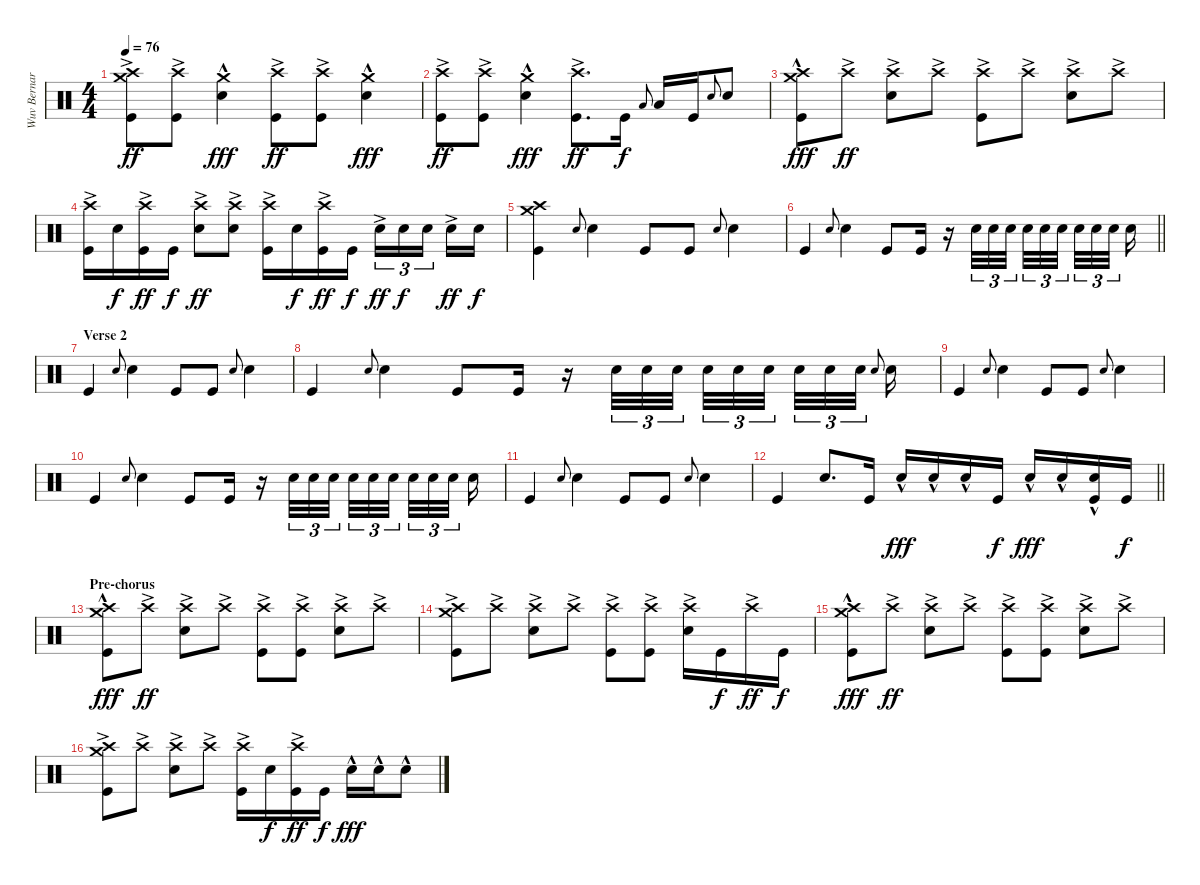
\track ("Wuv Bernardo" "Wuv Bernar") {instrument percussion}
\staff {score}
\articulation defaults
\ts (4 4)
\tempo 76
\clef neutral
\ks c
("Crash medium (hit)"{ac} "Crash high (hit)"{ac} "Kick (hit)").8{dy ff} ("Crash high (hit)"{ac} "Kick (hit)").8 ("Crash medium (hit)"{hac} "Snare (hit) 2").4{dy fff} ("Crash high (hit)"{ac} "Kick (hit)").8{dy ff} ("Crash high (hit)"{ac} "Kick (hit)").8 ("Crash medium (hit)"{hac} "Snare (hit) 2").4{dy fff} |
("Crash high (hit)"{ac} "Kick (hit)").8{dy ff} ("Crash high (hit)"{ac} "Kick (hit)").8 ("Crash medium (hit)"{hac} "Snare (hit) 2").4{dy fff} ("Crash high (hit)"{ac} "Kick (hit)").8{d dy ff} "Kick (hit)".16{dy f} "Low Tom (hit)".8{gr onbeat} "Low Tom (hit)".16 "Kick (hit)".16 "Snare (hit) 2".8{gr onbeat} "Snare (hit) 2".8 |
("Crash medium (hit)"{hac} "Crash high (hit)"{hac} "Kick (hit)").8{dy fff} "Crash high (hit)"{ac}.8{dy ff} ("Crash high (hit)"{ac} "Snare (hit) 2").8 "Crash high (hit)"{ac}.8 ("Crash high (hit)"{ac} "Kick (hit)").8 "Crash high (hit)"{ac}.8 ("Crash high (hit)"{ac} "Snare (hit) 2").8 "Crash high (hit)"{ac}.8 |
("Crash high (hit)"{ac} "Kick (hit)").16 "Snare (hit) 2".16{dy f} ("Crash high (hit)"{ac} "Kick (hit)").16{dy ff} "Kick (hit)".16{dy f} ("Crash high (hit)"{ac} "Snare (hit) 2").8{dy ff} ("Crash high (hit)"{ac} "Snare (hit) 2").8 ("Crash high (hit)"{ac} "Kick (hit)").16 "Snare (hit) 2".16{dy f} ("Crash high (hit)"{ac} "Kick (hit)").16{dy ff} "Kick (hit)".16{dy f} "Snare (hit) 2"{ac}.16{tu (3 2) dy ff} "Snare (hit) 2".16{tu (3 2) dy f} "Snare (hit) 2".16{tu (3 2) beam splitsecondary} "Snare (hit) 2"{ac}.16{dy ff} "Snare (hit) 2".16{dy f} |
("Crash medium (hit)" "Crash high (hit)" "Kick (hit)").4 "Snare (hit) 2".8{gr onbeat} "Snare (hit) 2".4 "Kick (hit)".8 "Kick (hit)".8 "Snare (hit) 2".8{gr onbeat} "Snare (hit) 2".4 |
\barLineRight lightlight "Kick (hit)".4 "Snare (hit) 2".8{gr onbeat} "Snare (hit) 2".4 "Kick (hit)".8 "Kick (hit)".16
r.16{volume 0} "Snare (hit) 2".32{tu (3 2) volume 13} "Snare (hit) 2".32{tu (3 2)} "Snare (hit) 2".32{tu (3 2) beam splitsecondary} "Snare (hit) 2".32{tu (3 2)} "Snare (hit) 2".32{tu (3 2)} "Snare (hit) 2".32{tu (3 2) beam splitsecondary} "Snare (hit) 2".32{tu (3 2)} "Snare (hit) 2".32{tu (3 2)} "Snare (hit) 2".32{tu (3 2) beam splitsecondary} "Snare (hit) 2".16 |
\section ("" "Verse 2")
"Kick (hit)".4 "Snare (hit) 2".8{gr onbeat} "Snare (hit) 2".4 "Kick (hit)".8 "Kick (hit)".8 "Snare (hit) 2".8{gr onbeat} "Snare (hit) 2".4 |
"Kick (hit)".4 "Snare (hit) 2".8{gr onbeat} "Snare (hit) 2".4 "Kick (hit)".8 "Kick (hit)".16 r.16{volume 0} "Snare (hit) 2".32{tu (3 2) volume 13} "Snare (hit) 2".32{tu (3 2)} "Snare (hit) 2".32{tu (3 2) beam splitsecondary} "Snare (hit) 2".32{tu (3 2)} "Snare (hit) 2".32{tu (3 2)} "Snare (hit) 2".32{tu (3 2) beam splitsecondary} "Snare (hit) 2".32{tu (3 2)} "Snare (hit) 2".32{tu (3 2)} "Snare (hit) 2".32{tu (3 2)} "Snare (hit) 2".8{gr onbeat beam splitsecondary} "Snare (hit) 2".16 |
"Kick (hit)".4 "Snare (hit) 2".8{gr onbeat} "Snare (hit) 2".4 "Kick (hit)".8 "Kick (hit)".8 "Snare (hit) 2".8{gr onbeat} "Snare (hit) 2".4 |
"Kick (hit)".4 "Snare (hit) 2".8{gr onbeat} "Snare (hit) 2".4 "Kick (hit)".8 "Kick (hit)".16 r.16{volume 0} "Snare (hit) 2".32{tu (3 2) volume 13} "Snare (hit) 2".32{tu (3 2)} "Snare (hit) 2".32{tu (3 2) beam splitsecondary} "Snare (hit) 2".32{tu (3 2)} "Snare (hit) 2".32{tu (3 2)} "Snare (hit) 2".32{tu (3 2) beam splitsecondary} "Snare (hit) 2".32{tu (3 2)} "Snare (hit) 2".32{tu (3 2)} "Snare (hit) 2".32{tu (3 2) beam splitsecondary} "Snare (hit) 2".16 |
"Kick (hit)".4 "Snare (hit) 2".8{gr onbeat} "Snare (hit) 2".4 "Kick (hit)".8 "Kick (hit)".8 "Snare (hit) 2".8{gr onbeat} "Snare (hit) 2".4 |
\barLineRight lightlight "Kick (hit)".4 "Snare (hit) 2".8{d} "Kick (hit)".16 "Snare (hit) 2"{hac}.16{dy fff} "Snare (hit) 2"{hac}.16 "Snare (hit) 2"{hac}.16 "Kick (hit)".16{dy f} "Snare (hit) 2"{hac}.16{dy fff} "Snare (hit) 2"{hac}.16
("Snare (hit) 2"{hac} "Kick (hit)").16 "Kick (hit)".16{dy f} |
\section ("" "Pre-chorus")
("Crash medium (hit)"{hac} "Crash high (hit)"{hac} "Kick (hit)").8{dy fff} "Crash high (hit)"{ac}.8{dy ff} ("Crash high (hit)"{ac} "Snare (hit) 2").8 "Crash high (hit)"{ac}.8 ("Crash high (hit)"{ac} "Kick (hit)").8 ("Crash high (hit)"{ac} "Kick (hit)").8 ("Crash high (hit)"{ac} "Snare (hit) 2").8 "Crash high (hit)"{ac}.8 |
("Crash medium (hit)"{ac} "Crash high (hit)"{ac} "Kick (hit)").8 "Crash high (hit)"{ac}.8 ("Crash high (hit)"{ac} "Snare (hit) 2").8 "Crash high (hit)"{ac}.8 ("Crash high (hit)"{ac} "Kick (hit)").8 ("Crash high (hit)"{ac} "Kick (hit)").8 ("Crash high (hit)"{ac} "Snare (hit) 2").16 "Kick (hit)".16{dy f} "Crash high (hit)"{ac}.16{dy ff} "Kick (hit)".16{dy f} |
("Crash medium (hit)"{hac} "Crash high (hit)"{hac} "Kick (hit)").8{dy fff} "Crash high (hit)"{ac}.8{dy ff} ("Crash high (hit)"{ac} "Snare (hit) 2").8 "Crash high (hit)"{ac}.8 ("Crash high (hit)"{ac} "Kick (hit)").8 ("Crash high (hit)"{ac} "Kick (hit)").8 ("Crash high (hit)"{ac} "Snare (hit) 2").8 "Crash high (hit)"{ac}.8 |
("Crash medium (hit)"{ac} "Crash high (hit)"{ac} "Kick (hit)").8 "Crash high (hit)"{ac}.8 ("Crash high (hit)"{ac} "Snare (hit) 2").8 "Crash high (hit)"{ac}.8 ("Crash high (hit)"{ac} "Kick (hit)").16 "Snare (hit) 2".16{dy f} ("Crash high (hit)"{ac} "Kick (hit)").16{dy ff} "Kick (hit)".16{dy f} "Snare (hit) 2"{hac}.16{dy fff} "Snare (hit) 2"{hac}.16 "Snare (hit) 2"{hac}.8
